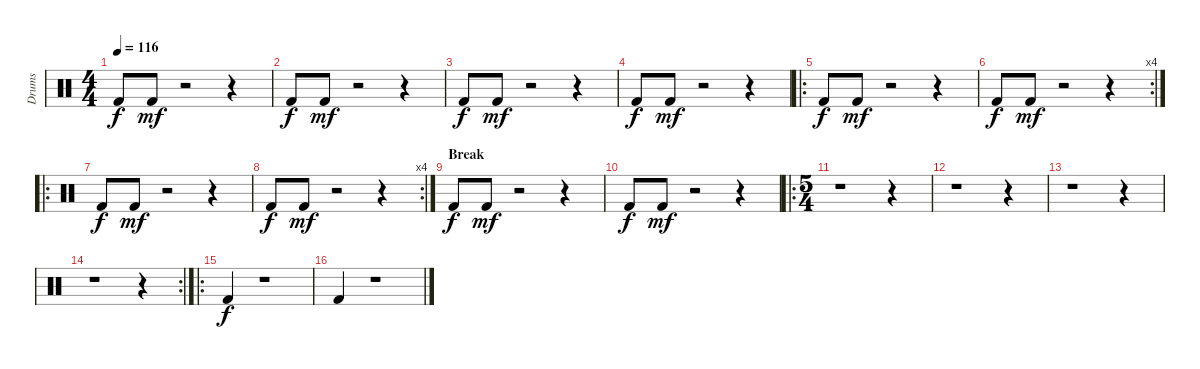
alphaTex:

\track ("Drums" "Drums") {instrument percussion}
\staff {score}
\articulation defaults
\ts (4 4)
\tempo 116
\clef neutral
\ks c "Kick (hit) 2".8{dy f} "Kick (hit) 2".8{dy mf}
r.2 r.4 |
"Kick (hit) 2".8{dy f} "Kick (hit) 2".8{dy mf} r.2 r.4 |
"Kick (hit) 2".8{dy f} "Kick (hit) 2".8{dy mf} r.2 r.4 |
"Kick (hit) 2".8{dy f} "Kick (hit) 2".8{dy mf} r.2 r.4 |
\ro "Kick (hit) 2".8{dy f} "Kick (hit) 2".8{dy mf}
r.2 r.4 |
\rc 4 "Kick (hit) 2".8{dy f} "Kick (hit) 2".8{dy mf}
r.2 r.4 |
\ro "Kick (hit) 2".8{dy f} "Kick (hit) 2".8{dy mf}
r.2 r.4 |
\rc 4 "Kick (hit) 2".8{dy f} "Kick (hit) 2".8{dy mf}
r.2 r.4 |
\section ("" "Break ")
"Kick (hit) 2".8{dy f} "Kick (hit) 2".8{dy mf} r.2 r.4 |
"Kick (hit) 2".8{dy f} "Kick (hit) 2".8{dy mf} r.2 r.4 |
\ro
\ts (5 4)
r.1 r.4 |
r.1 r.4 |
r.1 r.4 |
\rc 2
r.1 r.4 |
\ro "Kick (hit) 2".4{dy f}
r.1 |
"Kick (hit) 2".4 r.1
